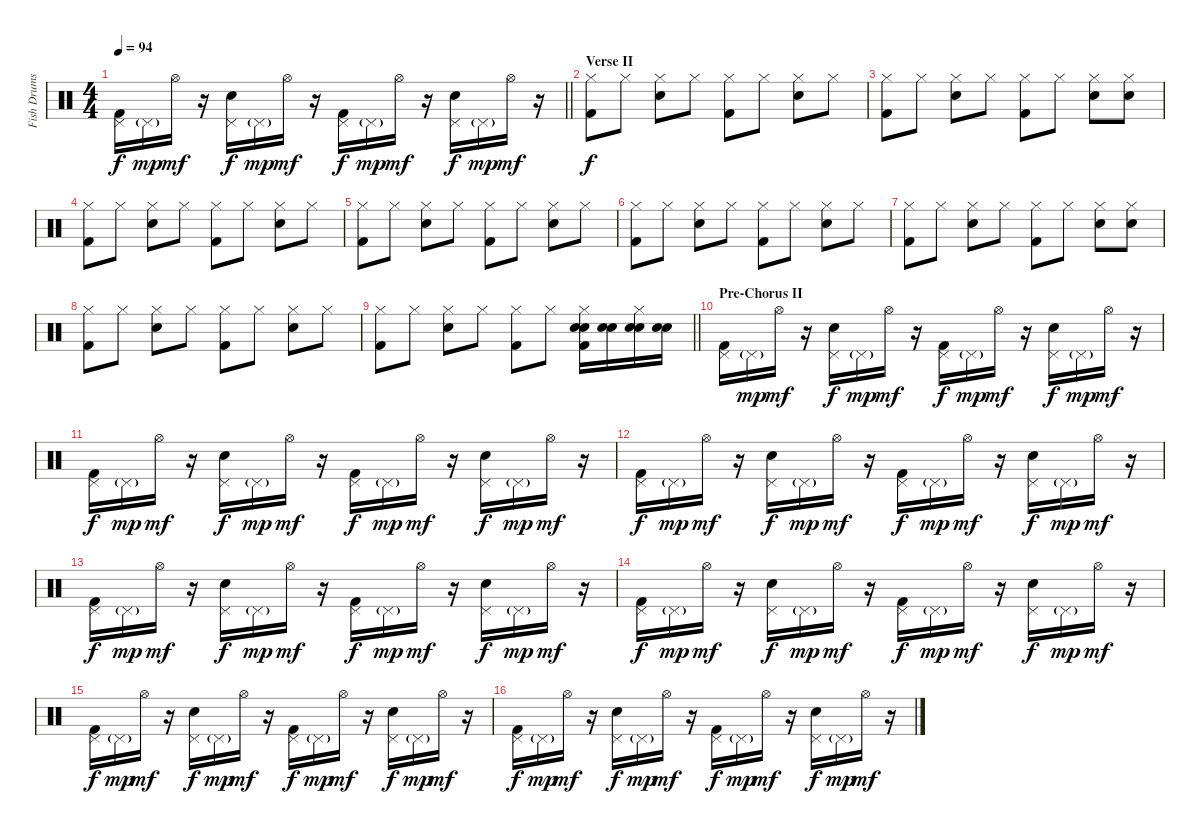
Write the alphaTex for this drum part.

\track ("Fish Drums" "Fish Drums") {instrument percussion}
\staff {score}
\articulation defaults
\ts (4 4)
\tempo 94
\clef neutral
\barLineRight lightlight
\ks c
("Pedal Hi-Hat (hit)" "Kick (hit) 2").16{dy f} "Pedal Hi-Hat (hit)"{g}.16{dy mp} "Hi-Hat (open)".16{dy mf} r.16 ("Pedal Hi-Hat (hit)" "Snare (hit) 2").16{dy f} "Pedal Hi-Hat (hit)"{g}.16{dy mp} "Hi-Hat (open)".16{dy mf} r.16 ("Pedal Hi-Hat (hit)" "Kick (hit) 2").16{dy f} "Pedal Hi-Hat (hit)"{g}.16{dy mp} "Hi-Hat (open)".16{dy mf} r.16 ("Pedal Hi-Hat (hit)" "Snare (hit) 2").16{dy f} "Pedal Hi-Hat (hit)"{g}.16{dy mp} "Hi-Hat (open)".16{dy mf} r.16 |
\section ("" "Verse II")
("Hi-Hat (closed)" "Kick (hit) 2").8{dy f} "Hi-Hat (closed)".8 ("Hi-Hat (closed)" "Snare (hit) 2").8 "Hi-Hat (closed)".8 ("Hi-Hat (closed)" "Kick (hit) 2").8 "Hi-Hat (closed)".8 ("Hi-Hat (closed)" "Snare (hit) 2").8 "Hi-Hat (closed)".8 |
("Hi-Hat (closed)" "Kick (hit) 2").8 "Hi-Hat (closed)".8 ("Hi-Hat (closed)" "Snare (hit) 2").8 "Hi-Hat (closed)".8 ("Hi-Hat (closed)" "Kick (hit) 2").8 "Hi-Hat (closed)".8 ("Hi-Hat (closed)" "Snare (hit) 2").8 ("Hi-Hat (closed)" "Snare (hit) 2").8 |
("Hi-Hat (closed)" "Kick (hit) 2").8 "Hi-Hat (closed)".8 ("Hi-Hat (closed)" "Snare (hit) 2").8 "Hi-Hat (closed)".8 ("Hi-Hat (closed)" "Kick (hit) 2").8 "Hi-Hat (closed)".8 ("Hi-Hat (closed)" "Snare (hit) 2").8 "Hi-Hat (closed)".8 |
("Hi-Hat (closed)" "Kick (hit) 2").8 "Hi-Hat (closed)".8 ("Hi-Hat (closed)" "Snare (hit) 2").8 "Hi-Hat (closed)".8 ("Hi-Hat (closed)" "Kick (hit) 2").8 "Hi-Hat (closed)".8 ("Hi-Hat (closed)" "Snare (hit) 2").8 "Hi-Hat (closed)".8 |
("Hi-Hat (closed)" "Kick (hit) 2").8 "Hi-Hat (closed)".8 ("Hi-Hat (closed)" "Snare (hit) 2").8 "Hi-Hat (closed)".8 ("Hi-Hat (closed)" "Kick (hit) 2").8 "Hi-Hat (closed)".8 ("Hi-Hat (closed)" "Snare (hit) 2").8 "Hi-Hat (closed)".8 |
("Hi-Hat (closed)" "Kick (hit) 2").8 "Hi-Hat (closed)".8 ("Hi-Hat (closed)" "Snare (hit) 2").8 "Hi-Hat (closed)".8 ("Hi-Hat (closed)" "Kick (hit) 2").8 "Hi-Hat (closed)".8 ("Hi-Hat (closed)" "Snare (hit) 2").8 ("Hi-Hat (closed)" "Snare (hit) 2").8 |
("Hi-Hat (closed)" "Kick (hit) 2").8 "Hi-Hat (closed)".8 ("Hi-Hat (closed)" "Snare (hit) 2").8 "Hi-Hat (closed)".8 ("Hi-Hat (closed)" "Kick (hit) 2").8 "Hi-Hat (closed)".8 ("Hi-Hat (closed)" "Snare (hit) 2").8 "Hi-Hat (closed)".8 |
\barLineRight lightlight
("Hi-Hat (closed)" "Kick (hit) 2").8 "Hi-Hat (closed)".8 ("Hi-Hat (closed)" "Snare (hit) 2").8 "Hi-Hat (closed)".8 ("Hi-Hat (closed)" "Kick (hit) 2").8 "Hi-Hat (closed)".8 ("Hi-Hat (closed)" "Snare (hit) 2" "Snare (hit) 2" "Kick (hit) 2").16 ("Snare (hit) 2" "Snare (hit) 2").16 ("Hi-Hat (closed)" "Snare (hit) 2" "Snare (hit) 2").16 ("Snare (hit) 2" "Snare (hit) 2").16 |
\section ("" "Pre-Chorus II")
("Pedal Hi-Hat (hit)" "Kick (hit) 2").16 "Pedal Hi-Hat (hit)"{g}.16{dy mp} "Hi-Hat (open)".16{dy mf} r.16 ("Pedal Hi-Hat (hit)" "Snare (hit) 2").16{dy f} "Pedal Hi-Hat (hit)"{g}.16{dy mp} "Hi-Hat (open)".16{dy mf} r.16 ("Pedal Hi-Hat (hit)" "Kick (hit) 2").16{dy f} "Pedal Hi-Hat (hit)"{g}.16{dy mp} "Hi-Hat (open)".16{dy mf} r.16 ("Pedal Hi-Hat (hit)" "Snare (hit) 2").16{dy f} "Pedal Hi-Hat (hit)"{g}.16{dy mp} "Hi-Hat (open)".16{dy mf} r.16 |
("Pedal Hi-Hat (hit)" "Kick (hit) 2").16{dy f} "Pedal Hi-Hat (hit)"{g}.16{dy mp} "Hi-Hat (open)".16{dy mf} r.16 ("Pedal Hi-Hat (hit)" "Snare (hit) 2").16{dy f} "Pedal Hi-Hat (hit)"{g}.16{dy mp} "Hi-Hat (open)".16{dy mf} r.16 ("Pedal Hi-Hat (hit)" "Kick (hit) 2").16{dy f} "Pedal Hi-Hat (hit)"{g}.16{dy mp} "Hi-Hat (open)".16{dy mf} r.16 ("Pedal Hi-Hat (hit)" "Snare (hit) 2").16{dy f} "Pedal Hi-Hat (hit)"{g}.16{dy mp} "Hi-Hat (open)".16{dy mf} r.16 |
("Pedal Hi-Hat (hit)" "Kick (hit) 2").16{dy f} "Pedal Hi-Hat (hit)"{g}.16{dy mp} "Hi-Hat (open)".16{dy mf} r.16 ("Pedal Hi-Hat (hit)" "Snare (hit) 2").16{dy f} "Pedal Hi-Hat (hit)"{g}.16{dy mp} "Hi-Hat (open)".16{dy mf} r.16 ("Pedal Hi-Hat (hit)" "Kick (hit) 2").16{dy f} "Pedal Hi-Hat (hit)"{g}.16{dy mp} "Hi-Hat (open)".16{dy mf} r.16 ("Pedal Hi-Hat (hit)" "Snare (hit) 2").16{dy f} "Pedal Hi-Hat (hit)"{g}.16{dy mp} "Hi-Hat (open)".16{dy mf} r.16 |
("Pedal Hi-Hat (hit)" "Kick (hit) 2").16{dy f} "Pedal Hi-Hat (hit)"{g}.16{dy mp} "Hi-Hat (open)".16{dy mf} r.16 ("Pedal Hi-Hat (hit)" "Snare (hit) 2").16{dy f} "Pedal Hi-Hat (hit)"{g}.16{dy mp} "Hi-Hat (open)".16{dy mf} r.16 ("Pedal Hi-Hat (hit)" "Kick (hit) 2").16{dy f} "Pedal Hi-Hat (hit)"{g}.16{dy mp} "Hi-Hat (open)".16{dy mf} r.16 ("Pedal Hi-Hat (hit)" "Snare (hit) 2").16{dy f} "Pedal Hi-Hat (hit)"{g}.16{dy mp} "Hi-Hat (open)".16{dy mf} r.16 |
("Pedal Hi-Hat (hit)" "Kick (hit) 2").16{dy f} "Pedal Hi-Hat (hit)"{g}.16{dy mp} "Hi-Hat (open)".16{dy mf} r.16 ("Pedal Hi-Hat (hit)" "Snare (hit) 2").16{dy f} "Pedal Hi-Hat (hit)"{g}.16{dy mp} "Hi-Hat (open)".16{dy mf} r.16 ("Pedal Hi-Hat (hit)" "Kick (hit) 2").16{dy f} "Pedal Hi-Hat (hit)"{g}.16{dy mp} "Hi-Hat (open)".16{dy mf} r.16 ("Pedal Hi-Hat (hit)" "Snare (hit) 2").16{dy f} "Pedal Hi-Hat (hit)"{g}.16{dy mp} "Hi-Hat (open)".16{dy mf} r.16 |
("Pedal Hi-Hat (hit)" "Kick (hit) 2").16{dy f} "Pedal Hi-Hat (hit)"{g}.16{dy mp} "Hi-Hat (open)".16{dy mf} r.16 ("Pedal Hi-Hat (hit)" "Snare (hit) 2").16{dy f} "Pedal Hi-Hat (hit)"{g}.16{dy mp} "Hi-Hat (open)".16{dy mf} r.16 ("Pedal Hi-Hat (hit)" "Kick (hit) 2").16{dy f} "Pedal Hi-Hat (hit)"{g}.16{dy mp} "Hi-Hat (open)".16{dy mf} r.16 ("Pedal Hi-Hat (hit)" "Snare (hit) 2").16{dy f} "Pedal Hi-Hat (hit)"{g}.16{dy mp} "Hi-Hat (open)".16{dy mf} r.16 |
("Pedal Hi-Hat (hit)" "Kick (hit) 2").16{dy f} "Pedal Hi-Hat (hit)"{g}.16{dy mp} "Hi-Hat (open)".16{dy mf} r.16 ("Pedal Hi-Hat (hit)" "Snare (hit) 2").16{dy f} "Pedal Hi-Hat (hit)"{g}.16{dy mp} "Hi-Hat (open)".16{dy mf} r.16 ("Pedal Hi-Hat (hit)" "Kick (hit) 2").16{dy f} "Pedal Hi-Hat (hit)"{g}.16{dy mp} "Hi-Hat (open)".16{dy mf} r.16 ("Pedal Hi-Hat (hit)" "Snare (hit) 2").16{dy f} "Pedal Hi-Hat (hit)"{g}.16{dy mp} "Hi-Hat (open)".16{dy mf} r.16
